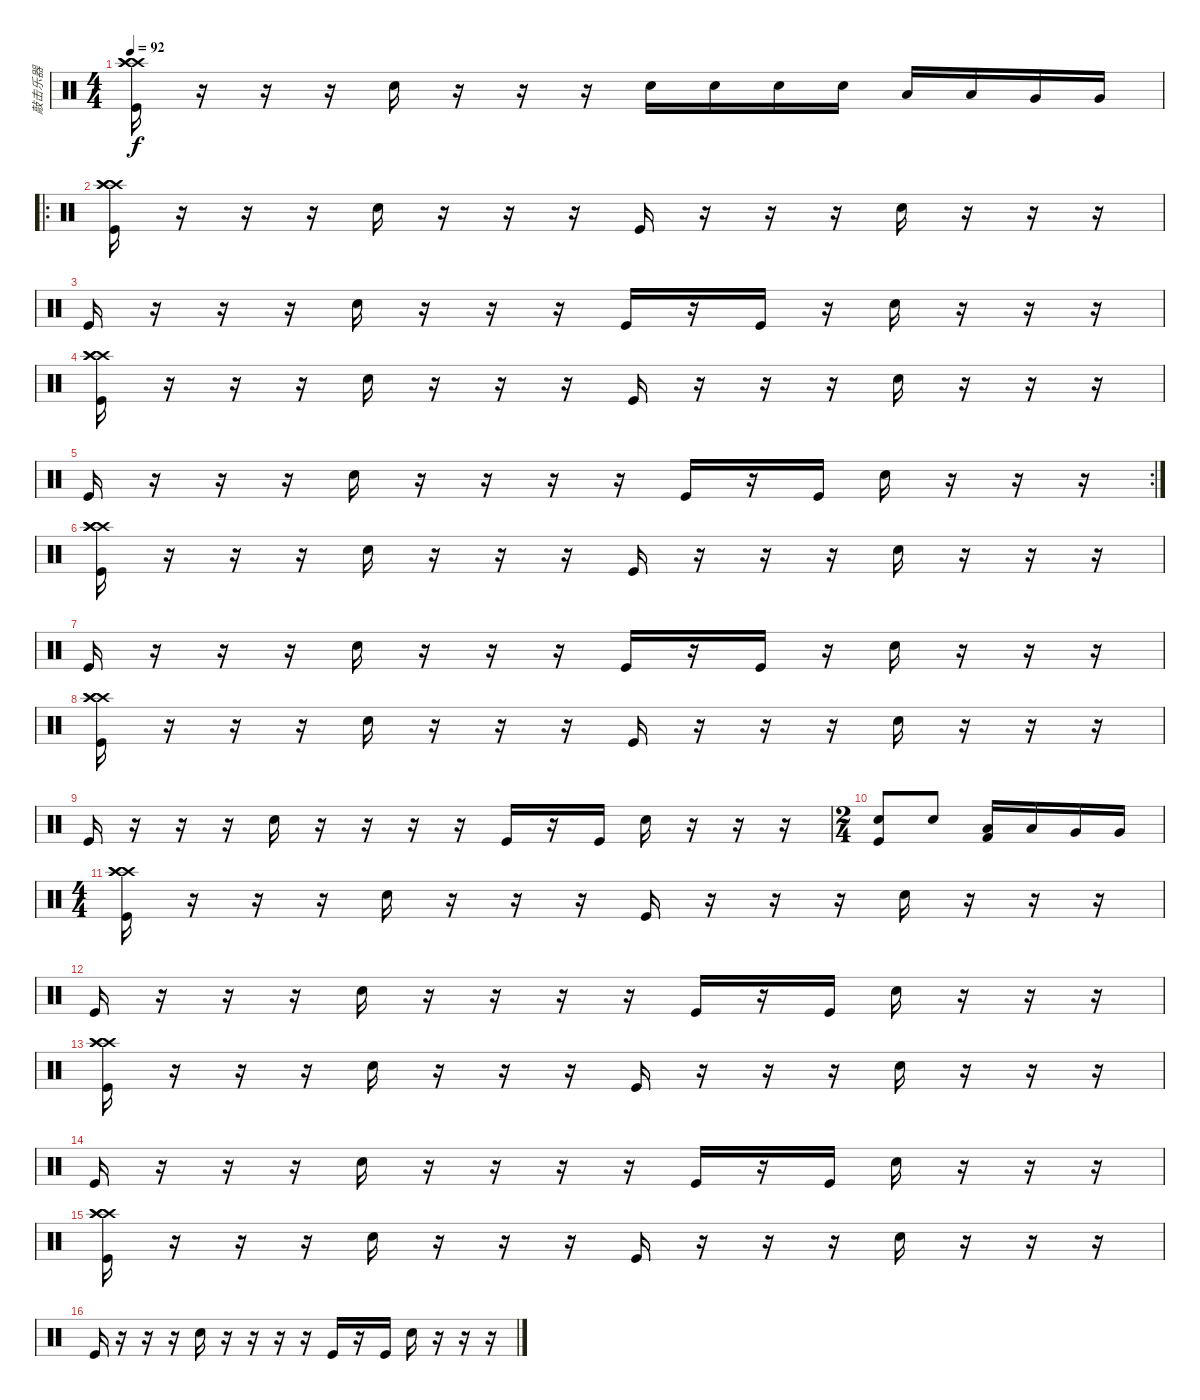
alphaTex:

\track ("敲击乐器" "敲击乐器") {instrument percussion}
\staff {score}
\articulation defaults
\ts (4 4)
\tempo 92
\clef neutral
\ks c
("Kick (hit)" "Crash high (hit)" "Crash high (hit)" "Crash high (hit)").16{dy f} r.16 r.16 r.16 "Electric Snare (hit)".16 r.16 r.16 r.16 "Electric Snare (hit)".16 "Electric Snare (hit)".16 "Electric Snare (hit)".16 "Electric Snare (hit)".16 "Low Tom (hit)".16 "Low Tom (hit)".16 "Very Low Tom (hit)".16 "Very Low Tom (hit)".16 |
\ro
("Kick (hit)" "Crash high (hit)" "Crash high (hit)" "Crash high (hit)").16 r.16 r.16 r.16 "Electric Snare (hit)".16 r.16 r.16 r.16 "Kick (hit)".16 r.16 r.16 r.16 "Electric Snare (hit)".16 r.16 r.16 r.16 |
"Kick (hit)".16 r.16 r.16 r.16 "Electric Snare (hit)".16 r.16 r.16 r.16 "Kick (hit)".16 r.16 "Kick (hit)".16 r.16 "Electric Snare (hit)".16 r.16 r.16 r.16 |
("Kick (hit)" "Crash high (hit)" "Crash high (hit)" "Crash high (hit)").16 r.16 r.16 r.16 "Electric Snare (hit)".16 r.16 r.16 r.16 "Kick (hit)".16 r.16 r.16 r.16 "Electric Snare (hit)".16 r.16 r.16 r.16 |
\rc 2 "Kick (hit)".16
r.16 r.16 r.16 "Electric Snare (hit)".16 r.16 r.16 r.16 r.16 "Kick (hit)".16 r.16 "Kick (hit)".16 "Electric Snare (hit)".16 r.16 r.16 r.16 |
("Kick (hit)" "Crash high (hit)" "Crash high (hit)" "Crash high (hit)").16 r.16 r.16 r.16 "Electric Snare (hit)".16 r.16 r.16 r.16 "Kick (hit)".16 r.16 r.16 r.16 "Electric Snare (hit)".16 r.16 r.16 r.16 |
"Kick (hit)".16 r.16 r.16 r.16 "Electric Snare (hit)".16 r.16 r.16 r.16 "Kick (hit)".16 r.16 "Kick (hit)".16 r.16 "Electric Snare (hit)".16 r.16 r.16 r.16 |
("Kick (hit)" "Crash high (hit)" "Crash high (hit)" "Crash high (hit)").16 r.16 r.16 r.16 "Electric Snare (hit)".16 r.16 r.16 r.16 "Kick (hit)".16 r.16 r.16 r.16 "Electric Snare (hit)".16 r.16 r.16 r.16 |
"Kick (hit)".16 r.16 r.16 r.16 "Electric Snare (hit)".16 r.16 r.16 r.16 r.16 "Kick (hit)".16 r.16 "Kick (hit)".16 "Electric Snare (hit)".16 r.16 r.16 r.16 |
\ts (2 4)
("Electric Snare (hit)" "Kick (hit)").8 "Electric Snare (hit)".8 ("Low Tom (hit)" "Kick (hit) 2").16 "Low Tom (hit)".16 "Very Low Tom (hit)".16 "Very Low Tom (hit)".16 |
\ts (4 4)
("Kick (hit)" "Crash high (hit)" "Crash high (hit)" "Crash high (hit)").16 r.16 r.16 r.16 "Electric Snare (hit)".16 r.16 r.16 r.16 "Kick (hit)".16 r.16 r.16 r.16 "Electric Snare (hit)".16 r.16 r.16 r.16 |
"Kick (hit)".16 r.16 r.16 r.16 "Electric Snare (hit)".16 r.16 r.16 r.16 r.16 "Kick (hit)".16 r.16 "Kick (hit)".16 "Electric Snare (hit)".16 r.16 r.16 r.16 |
("Kick (hit)" "Crash high (hit)" "Crash high (hit)" "Crash high (hit)").16 r.16 r.16 r.16 "Electric Snare (hit)".16 r.16 r.16 r.16 "Kick (hit)".16 r.16 r.16 r.16 "Electric Snare (hit)".16 r.16 r.16 r.16 |
"Kick (hit)".16 r.16 r.16 r.16 "Electric Snare (hit)".16 r.16 r.16 r.16 r.16 "Kick (hit)".16 r.16 "Kick (hit)".16 "Electric Snare (hit)".16 r.16 r.16 r.16 |
("Kick (hit)" "Crash high (hit)" "Crash high (hit)" "Crash high (hit)").16 r.16 r.16 r.16 "Electric Snare (hit)".16 r.16 r.16 r.16 "Kick (hit)".16 r.16 r.16 r.16 "Electric Snare (hit)".16 r.16 r.16 r.16 |
"Kick (hit)".16 r.16 r.16 r.16 "Electric Snare (hit)".16 r.16 r.16 r.16 r.16 "Kick (hit)".16 r.16 "Kick (hit)".16 "Electric Snare (hit)".16 r.16 r.16 r.16
